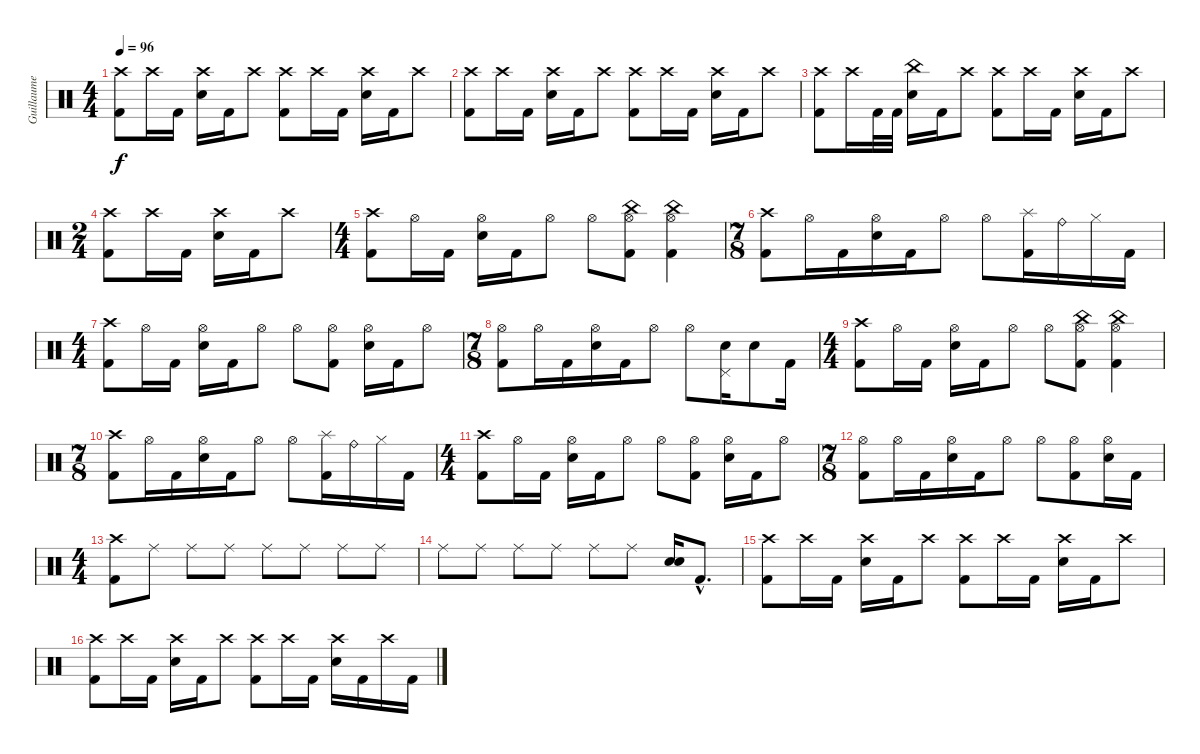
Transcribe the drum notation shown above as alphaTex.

\track ("Guillaume" "Guillaume") {instrument percussion}
\staff {score}
\articulation defaults
\ts (4 4)
\tempo 96
\clef neutral
\ks c
("Crash high (hit)" "Kick (hit) 2").8{dy f} "Crash high (hit)".16 "Kick (hit) 2".16 ("Crash high (hit)" "Electric Snare (hit)").16 "Kick (hit) 2".16 "Crash high (hit)".8 ("Crash high (hit)" "Kick (hit) 2").8 "Crash high (hit)".16 "Kick (hit) 2".16 ("Crash high (hit)" "Electric Snare (hit)").16 "Kick (hit) 2".16 "Crash high (hit)".8 |
("Crash high (hit)" "Kick (hit) 2").8 "Crash high (hit)".16 "Kick (hit) 2".16 ("Crash high (hit)" "Electric Snare (hit)").16 "Kick (hit) 2".16 "Crash high (hit)".8 ("Crash high (hit)" "Kick (hit) 2").8 "Crash high (hit)".16 "Kick (hit) 2".16 ("Crash high (hit)" "Electric Snare (hit)").16 "Kick (hit) 2".16 "Crash high (hit)".8 |
("Crash high (hit)" "Kick (hit) 2").8 "Crash high (hit)".16 "Kick (hit) 2".32 "Kick (hit) 2".32 ("China (hit)" "Electric Snare (hit)").16 "Kick (hit) 2".16 "Crash high (hit)".8 ("Crash high (hit)" "Kick (hit) 2").8 "Crash high (hit)".16 "Kick (hit) 2".16 ("Crash high (hit)" "Electric Snare (hit)").16 "Kick (hit) 2".16 "Crash high (hit)".8 |
\ts (2 4)
("Crash high (hit)" "Kick (hit) 2").8 "Crash high (hit)".16 "Kick (hit) 2".16 ("Crash high (hit)" "Electric Snare (hit)").16 "Kick (hit) 2".16 "Crash high (hit)".8 |
\ts (4 4)
\section ("" "")
("Crash high (hit)" "Kick (hit) 2").8 "Hi-Hat (open)".16 "Kick (hit) 2".16 ("Hi-Hat (open)" "Electric Snare (hit)").16 "Kick (hit) 2".16 "Hi-Hat (open)".8 "Hi-Hat (open)".8 ("China (hit)" "Hi-Hat (open)" "Kick (hit) 2").8 ("China (hit)" "Hi-Hat (open)" "Kick (hit) 2").4 |
\ts (7 8)
("Crash high (hit)" "Kick (hit) 2").8 "Hi-Hat (open)".16 "Kick (hit) 2".16 ("Hi-Hat (open)" "Electric Snare (hit)").16 "Kick (hit) 2".16 "Hi-Hat (open)".8 "Hi-Hat (open)".8 ("Splash (hit)" "Kick (hit) 2").16 "Ride (bell)".16 "Hi-Hat (closed)".16 "Kick (hit) 2".16 |
\ts (4 4)
("Crash high (hit)" "Kick (hit) 2").8 "Hi-Hat (open)".16 "Kick (hit) 2".16 ("Hi-Hat (open)" "Electric Snare (hit)").16 "Kick (hit) 2".16 "Hi-Hat (open)".8 "Hi-Hat (open)".8 ("Hi-Hat (open)" "Kick (hit) 2").8 ("Hi-Hat (open)" "Electric Snare (hit)").16 "Kick (hit) 2".16 "Hi-Hat (open)".8 |
\ts (7 8)
("Hi-Hat (open)" "Kick (hit) 2").8 "Hi-Hat (open)".16 "Kick (hit) 2".16 ("Hi-Hat (open)" "Electric Snare (hit)").16 "Kick (hit) 2".16 "Hi-Hat (open)".8 "Hi-Hat (open)".8 ("Pedal Hi-Hat (hit)" "Electric Snare (hit)").16 "Electric Snare (hit)".8 "Kick (hit) 2".16 |
\ts (4 4)
("Crash high (hit)" "Kick (hit) 2").8 "Hi-Hat (open)".16 "Kick (hit) 2".16 ("Hi-Hat (open)" "Electric Snare (hit)").16 "Kick (hit) 2".16 "Hi-Hat (open)".8 "Hi-Hat (open)".8 ("China (hit)" "Hi-Hat (open)" "Kick (hit) 2").8 ("China (hit)" "Hi-Hat (open)" "Kick (hit) 2").4 |
\ts (7 8)
("Crash high (hit)" "Kick (hit) 2").8 "Hi-Hat (open)".16 "Kick (hit) 2".16 ("Hi-Hat (open)" "Electric Snare (hit)").16 "Kick (hit) 2".16 "Hi-Hat (open)".8 "Hi-Hat (open)".8 ("Splash (hit)" "Kick (hit) 2").16 "Ride (bell)".16 "Hi-Hat (closed)".16 "Kick (hit) 2".16 |
\ts (4 4)
("Crash high (hit)" "Kick (hit) 2").8 "Hi-Hat (open)".16 "Kick (hit) 2".16 ("Hi-Hat (open)" "Electric Snare (hit)").16 "Kick (hit) 2".16 "Hi-Hat (open)".8 "Hi-Hat (open)".8 ("Hi-Hat (open)" "Kick (hit) 2").8 ("Hi-Hat (open)" "Electric Snare (hit)").16 "Kick (hit) 2".16 "Hi-Hat (open)".8 |
\ts (7 8)
("Hi-Hat (open)" "Kick (hit) 2").8 "Hi-Hat (open)".16 "Kick (hit) 2".16 ("Hi-Hat (open)" "Electric Snare (hit)").16 "Kick (hit) 2".16 "Hi-Hat (open)".8 "Hi-Hat (open)".8 ("Hi-Hat (open)" "Kick (hit) 2").8 ("Hi-Hat (open)" "Electric Snare (hit)").16 "Kick (hit) 2".16 |
\ts (4 4)
\section ("" "")
("Crash high (hit)" "Kick (hit) 2").8 "Ride (middle)".8 "Ride (middle)".8 "Ride (middle)".8 "Ride (middle)".8 "Ride (middle)".8 "Ride (middle)".8 "Ride (middle)".8 |
"Ride (middle)".8 "Ride (middle)".8 "Ride (middle)".8 "Ride (middle)".8 "Ride (middle)".8 "Ride (middle)".8 ("Electric Snare (hit)" "Electric Snare (hit)").16 "Kick (hit) 2"{hac}.8{d} |
\section ("" "")
("Crash high (hit)" "Kick (hit) 2").8 "Crash high (hit)".16 "Kick (hit) 2".16 ("Crash high (hit)" "Electric Snare (hit)").16 "Kick (hit) 2".16 "Crash high (hit)".8 ("Crash high (hit)" "Kick (hit) 2").8 "Crash high (hit)".16 "Kick (hit) 2".16 ("Crash high (hit)" "Electric Snare (hit)").16 "Kick (hit) 2".16 "Crash high (hit)".8 |
("Crash high (hit)" "Kick (hit) 2").8 "Crash high (hit)".16 "Kick (hit) 2".16 ("Crash high (hit)" "Electric Snare (hit)").16 "Kick (hit) 2".16 "Crash high (hit)".8 ("Crash high (hit)" "Kick (hit) 2").8 "Crash high (hit)".16 "Kick (hit) 2".16 ("Crash high (hit)" "Electric Snare (hit)").16 "Kick (hit) 2".16 "Crash high (hit)".16 "Kick (hit) 2".16
